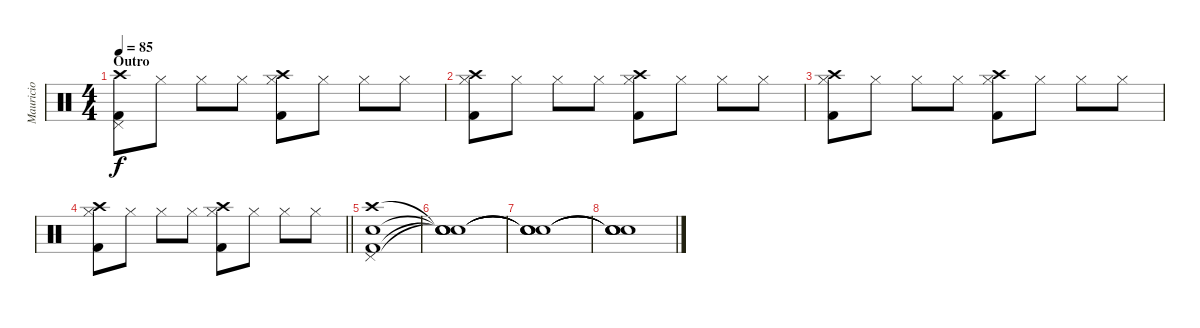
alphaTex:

\track ("Mauricio" "Mauricio") {instrument percussion}
\staff {score}
\articulation defaults
\ts (4 4)
\section ("" "Outro")
\tempo 85
\clef neutral
\ks c
("Crash high (hit)" "Pedal Hi-Hat (hit)" "Kick (hit) 2").8{dy f} "Hi-Hat (closed)".8 "Hi-Hat (closed)".8 "Hi-Hat (closed)".8 ("Crash high (hit)" "Hi-Hat (closed)" "Kick (hit) 2").8 "Hi-Hat (closed)".8 "Hi-Hat (closed)".8 "Hi-Hat (closed)".8 |
("Crash high (hit)" "Hi-Hat (closed)" "Kick (hit) 2").8 "Hi-Hat (closed)".8 "Hi-Hat (closed)".8 "Hi-Hat (closed)".8 ("Crash high (hit)" "Hi-Hat (closed)" "Kick (hit) 2").8 "Hi-Hat (closed)".8 "Hi-Hat (closed)".8 "Hi-Hat (closed)".8 |
("Crash high (hit)" "Hi-Hat (closed)" "Kick (hit) 2").8 "Hi-Hat (closed)".8 "Hi-Hat (closed)".8 "Hi-Hat (closed)".8 ("Crash high (hit)" "Hi-Hat (closed)" "Kick (hit) 2").8 "Hi-Hat (closed)".8 "Hi-Hat (closed)".8 "Hi-Hat (closed)".8 |
\barLineRight lightlight
("Crash high (hit)" "Hi-Hat (closed)" "Kick (hit) 2").8 "Hi-Hat (closed)".8 "Hi-Hat (closed)".8 "Hi-Hat (closed)".8 ("Crash high (hit)" "Hi-Hat (closed)" "Kick (hit) 2").8 "Hi-Hat (closed)".8 "Hi-Hat (closed)".8 "Hi-Hat (closed)".8 |
("Crash high (hit)" "Pedal Hi-Hat (hit)" "Electric Snare (hit)" "Kick (hit) 2").1 |
("Snare (hit)"{t} "Snare (hit)"{t} "Snare (hit)"{t} "Snare (hit)"{t}).1 |
("Snare (hit)"{t} "Snare (hit)"{t} "Snare (hit)"{t} "Snare (hit)"{t}).1 |
("Snare (hit)"{t} "Snare (hit)"{t} "Snare (hit)"{t} "Snare (hit)"{t}).1
